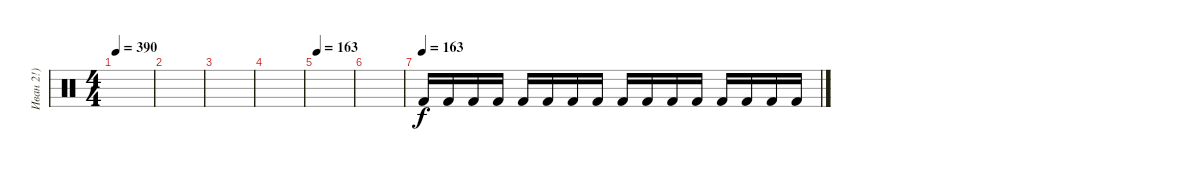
\track ("Иван 2!)" "Иван 2!)") {instrument percussion}
\staff {score}
\articulation defaults
\ts (4 4)
\tempo 390
\clef neutral
\ks c
|
|
|
|
\tempo 163
|
|
\tempo (163)
"Kick (hit) 2".16 "Kick (hit) 2".16 "Kick (hit) 2".16 "Kick (hit) 2".16 "Kick (hit) 2".16 "Kick (hit) 2".16 "Kick (hit) 2".16 "Kick (hit) 2".16 "Kick (hit) 2".16 "Kick (hit) 2".16 "Kick (hit) 2".16 "Kick (hit) 2".16 "Kick (hit) 2".16 "Kick (hit) 2".16 "Kick (hit) 2".16 "Kick (hit) 2".16
